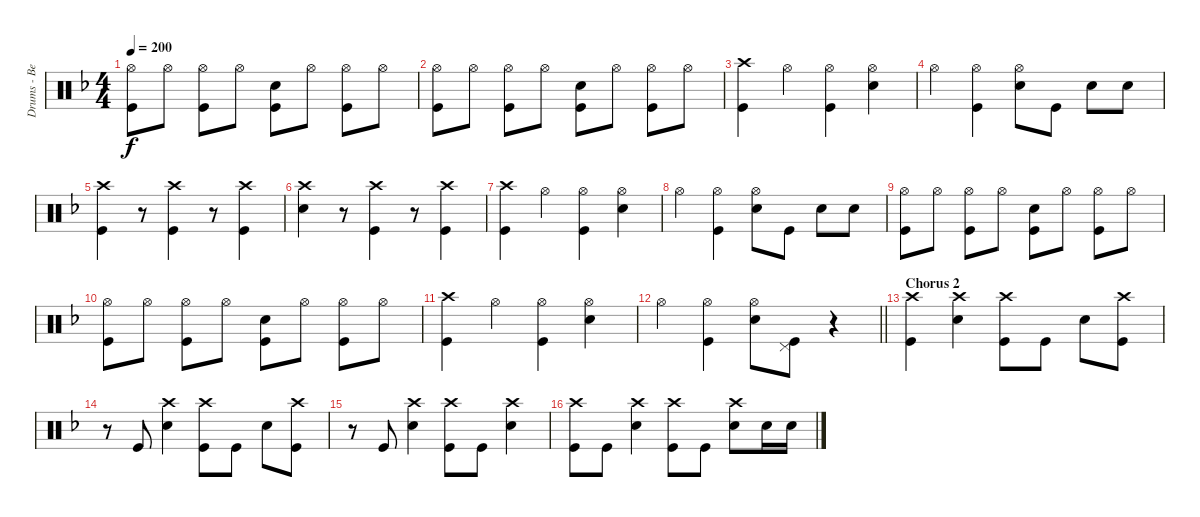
\track ("Drums - Ben Johnston" "Drums - Be") {instrument percussion}
\staff {score}
\articulation defaults
\ts (4 4)
\tempo 200
\clef neutral
\ks f
("Hi-Hat (open)" "Kick (hit)").8{dy f} "Hi-Hat (open)".8 ("Hi-Hat (open)" "Kick (hit)").8 "Hi-Hat (open)".8 ("Snare (hit) 2" "Kick (hit)").8 "Hi-Hat (open)".8 ("Hi-Hat (open)" "Kick (hit)").8 "Hi-Hat (open)".8 |
("Hi-Hat (open)" "Kick (hit)").8 "Hi-Hat (open)".8 ("Hi-Hat (open)" "Kick (hit)").8 "Hi-Hat (open)".8 ("Snare (hit) 2" "Kick (hit)").8 "Hi-Hat (open)".8 ("Hi-Hat (open)" "Kick (hit)").8 "Hi-Hat (open)".8 |
("Crash high (hit)" "Kick (hit)").4 "Hi-Hat (open)".4 ("Hi-Hat (open)" "Kick (hit)").4 ("Hi-Hat (open)" "Snare (hit) 2").4 |
"Hi-Hat (open)".4 ("Hi-Hat (open)" "Kick (hit)").4 ("Hi-Hat (open)" "Snare (hit) 2").8 "Kick (hit)".8 "Snare (hit) 2".8 "Snare (hit) 2".8 |
("Crash high (hit)" "Kick (hit)").4 r.8 ("Crash high (hit)" "Kick (hit)").4 r.8 ("Crash high (hit)" "Kick (hit)").4 |
("Crash high (hit)" "Snare (hit) 2").4 r.8 ("Crash high (hit)" "Kick (hit)").4 r.8 ("Crash high (hit)" "Kick (hit)").4 |
("Crash high (hit)" "Kick (hit)").4 "Hi-Hat (open)".4 ("Hi-Hat (open)" "Kick (hit)").4 ("Hi-Hat (open)" "Snare (hit) 2").4 |
"Hi-Hat (open)".4 ("Hi-Hat (open)" "Kick (hit)").4 ("Hi-Hat (open)" "Snare (hit) 2").8 "Kick (hit)".8 "Snare (hit) 2".8 "Snare (hit) 2".8 |
("Hi-Hat (open)" "Kick (hit)").8 "Hi-Hat (open)".8 ("Hi-Hat (open)" "Kick (hit)").8 "Hi-Hat (open)".8 ("Snare (hit) 2" "Kick (hit)").8 "Hi-Hat (open)".8 ("Hi-Hat (open)" "Kick (hit)").8 "Hi-Hat (open)".8 |
("Hi-Hat (open)" "Kick (hit)").8 "Hi-Hat (open)".8 ("Hi-Hat (open)" "Kick (hit)").8 "Hi-Hat (open)".8 ("Snare (hit) 2" "Kick (hit)").8 "Hi-Hat (open)".8 ("Hi-Hat (open)" "Kick (hit)").8 "Hi-Hat (open)".8 |
("Crash high (hit)" "Kick (hit)").4 "Hi-Hat (open)".4 ("Hi-Hat (open)" "Kick (hit)").4 ("Hi-Hat (open)" "Snare (hit) 2").4 |
\barLineRight lightlight "Hi-Hat (open)".4
("Hi-Hat (open)" "Kick (hit)").4 ("Hi-Hat (open)" "Snare (hit) 2").8 ("Pedal Hi-Hat (hit)" "Kick (hit)").8 r.4 |
\section ("" "Chorus 2")
("Crash high (hit)" "Kick (hit)").4 ("Crash high (hit)" "Snare (hit) 2").4 ("Crash high (hit)" "Kick (hit)").8 "Kick (hit)".8 "Snare (hit) 2".8 ("Crash high (hit)" "Kick (hit)").8 |
r.8 "Kick (hit)".8 ("Crash high (hit)" "Snare (hit) 2").4 ("Crash high (hit)" "Kick (hit)").8 "Kick (hit)".8 "Snare (hit) 2".8 ("Crash high (hit)" "Kick (hit)").8 |
r.8 "Kick (hit)".8 ("Crash high (hit)" "Snare (hit) 2").4 ("Crash high (hit)" "Kick (hit)").8 "Kick (hit)".8 ("Crash high (hit)" "Snare (hit) 2").4 |
("Crash high (hit)" "Kick (hit)").8 "Kick (hit)".8 ("Crash high (hit)" "Snare (hit) 2").4 ("Crash high (hit)" "Kick (hit)").8 "Kick (hit)".8 ("Crash high (hit)" "Snare (hit) 2").8 "Snare (hit) 2".16 "Snare (hit) 2".16
